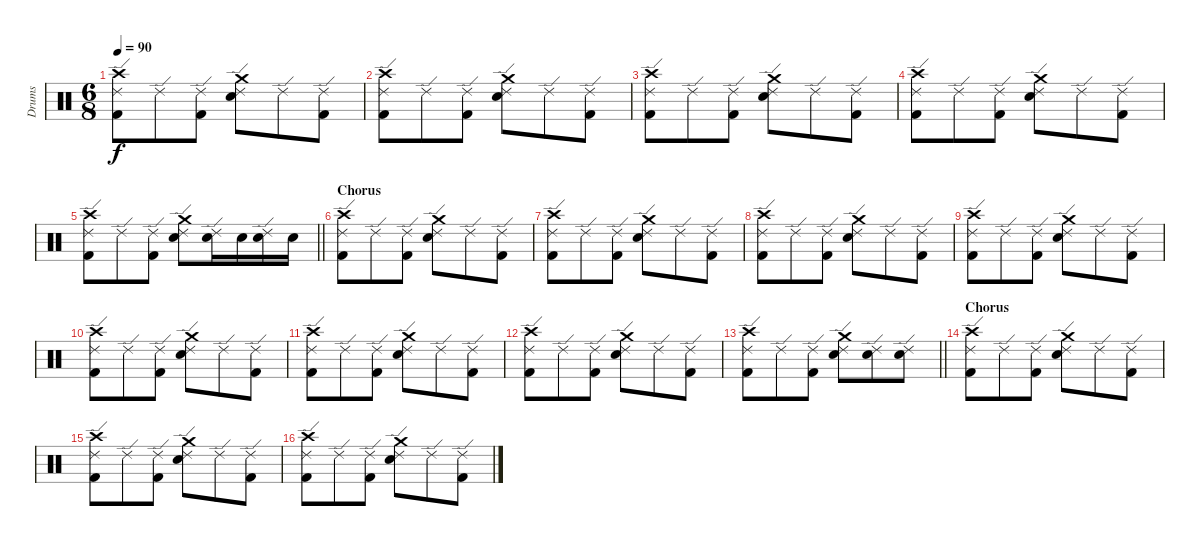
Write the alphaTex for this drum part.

\track ("Drums" "Drums") {instrument percussion}
\staff {score}
\articulation defaults
\ts (6 8)
\tempo 90
\clef neutral
\ks c
("Ride (edge) 2" "Kick (hit) 2" "Crash high (hit)").8{dy f} "Ride (edge) 2".8 ("Ride (edge) 2" "Kick (hit) 2").8 ("Ride (edge) 2" "Snare (hit) 2" "Crash medium (hit)").8 "Ride (edge) 2".8 ("Ride (edge) 2" "Kick (hit) 2").8 |
("Ride (edge) 2" "Kick (hit) 2" "Crash high (hit)").8 "Ride (edge) 2".8 ("Ride (edge) 2" "Kick (hit) 2").8 ("Ride (edge) 2" "Snare (hit) 2" "Crash medium (hit)").8 "Ride (edge) 2".8 ("Ride (edge) 2" "Kick (hit) 2").8 |
("Ride (edge) 2" "Kick (hit) 2" "Crash high (hit)").8 "Ride (edge) 2".8 ("Ride (edge) 2" "Kick (hit) 2").8 ("Ride (edge) 2" "Snare (hit) 2" "Crash medium (hit)").8 "Ride (edge) 2".8 ("Ride (edge) 2" "Kick (hit) 2").8 |
("Ride (edge) 2" "Kick (hit) 2" "Crash high (hit)").8 "Ride (edge) 2".8 ("Ride (edge) 2" "Kick (hit) 2").8 ("Ride (edge) 2" "Snare (hit) 2" "Crash medium (hit)").8 "Ride (edge) 2".8 ("Ride (edge) 2" "Kick (hit) 2").8 |
\barLineRight lightlight
("Ride (edge) 2" "Kick (hit) 2" "Crash high (hit)").8 "Ride (edge) 2".8 ("Ride (edge) 2" "Kick (hit) 2").8 ("Ride (edge) 2" "Snare (hit) 2" "Crash medium (hit)").8 ("Ride (edge) 2" "Snare (hit) 2").16 "Snare (hit) 2".16 ("Ride (edge) 2" "Snare (hit) 2").16 "Snare (hit) 2".16 |
\section ("" "Chorus")
("Ride (edge) 2" "Kick (hit) 2" "Crash high (hit)").8 "Ride (edge) 2".8 ("Ride (edge) 2" "Kick (hit) 2").8 ("Ride (edge) 2" "Snare (hit) 2" "Crash medium (hit)").8 "Ride (edge) 2".8 ("Ride (edge) 2" "Kick (hit) 2").8 |
("Ride (edge) 2" "Kick (hit) 2" "Crash high (hit)").8 "Ride (edge) 2".8 ("Ride (edge) 2" "Kick (hit) 2").8 ("Ride (edge) 2" "Snare (hit) 2" "Crash medium (hit)").8 "Ride (edge) 2".8 ("Ride (edge) 2" "Kick (hit) 2").8 |
("Ride (edge) 2" "Kick (hit) 2" "Crash high (hit)").8 "Ride (edge) 2".8 ("Ride (edge) 2" "Kick (hit) 2").8 ("Ride (edge) 2" "Snare (hit) 2" "Crash medium (hit)").8 "Ride (edge) 2".8 ("Ride (edge) 2" "Kick (hit) 2").8 |
("Ride (edge) 2" "Kick (hit) 2" "Crash high (hit)").8 "Ride (edge) 2".8 ("Ride (edge) 2" "Kick (hit) 2").8 ("Ride (edge) 2" "Snare (hit) 2" "Crash medium (hit)").8 "Ride (edge) 2".8 ("Ride (edge) 2" "Kick (hit) 2").8 |
("Ride (edge) 2" "Kick (hit) 2" "Crash high (hit)").8 "Ride (edge) 2".8 ("Ride (edge) 2" "Kick (hit) 2").8 ("Ride (edge) 2" "Snare (hit) 2" "Crash medium (hit)").8 "Ride (edge) 2".8 ("Ride (edge) 2" "Kick (hit) 2").8 |
("Ride (edge) 2" "Kick (hit) 2" "Crash high (hit)").8 "Ride (edge) 2".8 ("Ride (edge) 2" "Kick (hit) 2").8 ("Ride (edge) 2" "Snare (hit) 2" "Crash medium (hit)").8 "Ride (edge) 2".8 ("Ride (edge) 2" "Kick (hit) 2").8 |
("Ride (edge) 2" "Kick (hit) 2" "Crash high (hit)").8 "Ride (edge) 2".8 ("Ride (edge) 2" "Kick (hit) 2").8 ("Ride (edge) 2" "Snare (hit) 2" "Crash medium (hit)").8 "Ride (edge) 2".8 ("Ride (edge) 2" "Kick (hit) 2").8 |
\barLineRight lightlight
("Ride (edge) 2" "Kick (hit) 2" "Crash high (hit)").8 "Ride (edge) 2".8 ("Ride (edge) 2" "Kick (hit) 2").8 ("Ride (edge) 2" "Snare (hit) 2" "Crash medium (hit)").8 ("Ride (edge) 2" "Snare (hit) 2").8 ("Ride (edge) 2" "Snare (hit) 2").8 |
\section ("" "Chorus")
("Ride (edge) 2" "Kick (hit) 2" "Crash high (hit)").8 "Ride (edge) 2".8 ("Ride (edge) 2" "Kick (hit) 2").8 ("Ride (edge) 2" "Snare (hit) 2" "Crash medium (hit)").8 "Ride (edge) 2".8 ("Ride (edge) 2" "Kick (hit) 2").8 |
("Ride (edge) 2" "Kick (hit) 2" "Crash high (hit)").8 "Ride (edge) 2".8 ("Ride (edge) 2" "Kick (hit) 2").8 ("Ride (edge) 2" "Snare (hit) 2" "Crash medium (hit)").8 "Ride (edge) 2".8 ("Ride (edge) 2" "Kick (hit) 2").8 |
("Ride (edge) 2" "Kick (hit) 2" "Crash high (hit)").8 "Ride (edge) 2".8 ("Ride (edge) 2" "Kick (hit) 2").8 ("Ride (edge) 2" "Snare (hit) 2" "Crash medium (hit)").8 "Ride (edge) 2".8 ("Ride (edge) 2" "Kick (hit) 2").8
